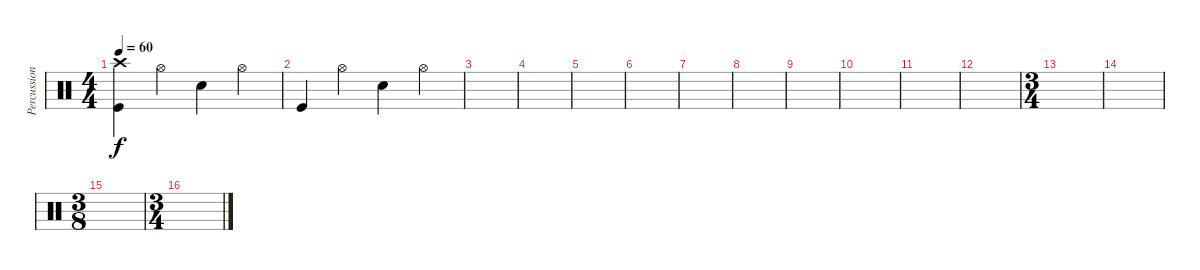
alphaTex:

\track ("Percussion" "Percussion") {instrument percussion}
\staff {score}
\articulation defaults
\ts (4 4)
\tempo 60
\clef neutral
\ks c
("Crash high (hit)" "Kick (hit)").4{dy f} "Hi-Hat (open)".4 "Snare (hit) 2".4 "Hi-Hat (open)".4 |
"Kick (hit)".4 "Hi-Hat (open)".4 "Snare (hit) 2".4 "Hi-Hat (open)".4 |
|
|
|
|
|
|
|
|
|
|
\ts (3 4)
|
|
\ts (3 8)
|
\ts (3 4)
